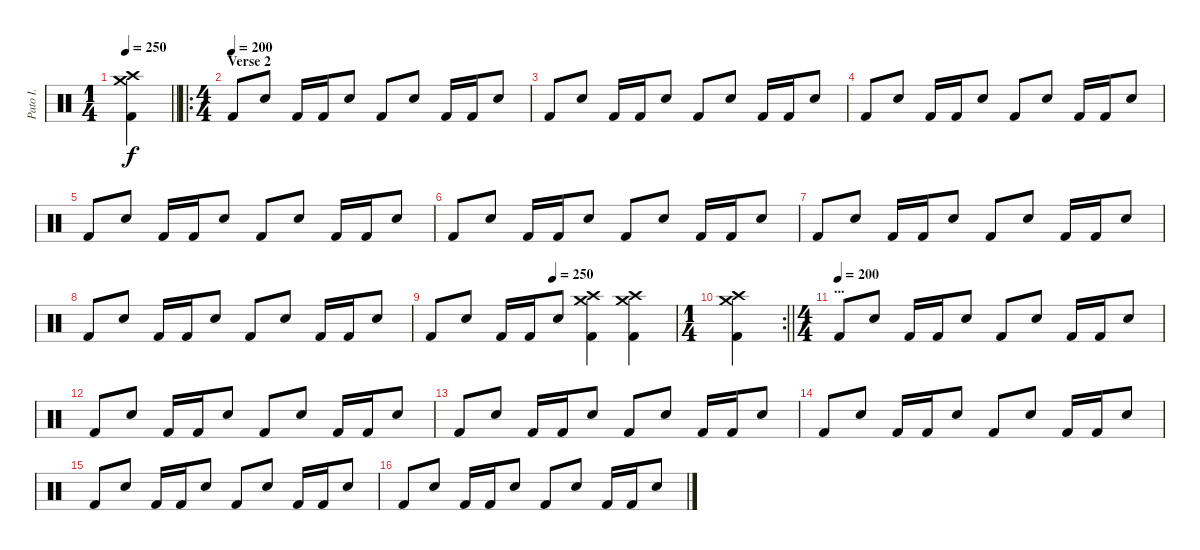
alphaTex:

\track ("Pato I." "Pato I.") {instrument percussion}
\staff {score}
\articulation defaults
\ts (1 4)
\tempo 250
\clef neutral
\barLineRight lightlight
\ks c
("Crash high (hit)" "Crash medium (hit)" "Kick (hit) 2").4{dy f} |
\ro
\ts (4 4)
\section ("" "Verse 2")
\tempo (200)
"Kick (hit) 2".8 "Snare (hit) 2".8 "Kick (hit) 2".16 "Kick (hit) 2".16 "Snare (hit) 2".8 "Kick (hit) 2".8 "Snare (hit) 2".8 "Kick (hit) 2".16 "Kick (hit) 2".16 "Snare (hit) 2".8 |
"Kick (hit) 2".8 "Snare (hit) 2".8 "Kick (hit) 2".16 "Kick (hit) 2".16 "Snare (hit) 2".8 "Kick (hit) 2".8 "Snare (hit) 2".8 "Kick (hit) 2".16 "Kick (hit) 2".16 "Snare (hit) 2".8 |
"Kick (hit) 2".8 "Snare (hit) 2".8 "Kick (hit) 2".16 "Kick (hit) 2".16 "Snare (hit) 2".8 "Kick (hit) 2".8 "Snare (hit) 2".8 "Kick (hit) 2".16 "Kick (hit) 2".16 "Snare (hit) 2".8 |
"Kick (hit) 2".8 "Snare (hit) 2".8 "Kick (hit) 2".16 "Kick (hit) 2".16 "Snare (hit) 2".8 "Kick (hit) 2".8 "Snare (hit) 2".8 "Kick (hit) 2".16 "Kick (hit) 2".16 "Snare (hit) 2".8 |
"Kick (hit) 2".8 "Snare (hit) 2".8 "Kick (hit) 2".16 "Kick (hit) 2".16 "Snare (hit) 2".8 "Kick (hit) 2".8 "Snare (hit) 2".8 "Kick (hit) 2".16 "Kick (hit) 2".16 "Snare (hit) 2".8 |
"Kick (hit) 2".8 "Snare (hit) 2".8 "Kick (hit) 2".16 "Kick (hit) 2".16 "Snare (hit) 2".8 "Kick (hit) 2".8 "Snare (hit) 2".8 "Kick (hit) 2".16 "Kick (hit) 2".16 "Snare (hit) 2".8 |
"Kick (hit) 2".8 "Snare (hit) 2".8 "Kick (hit) 2".16 "Kick (hit) 2".16 "Snare (hit) 2".8 "Kick (hit) 2".8 "Snare (hit) 2".8 "Kick (hit) 2".16 "Kick (hit) 2".16 "Snare (hit) 2".8 |
\tempo (250 0.5)
"Kick (hit) 2".8 "Snare (hit) 2".8 "Kick (hit) 2".16 "Kick (hit) 2".16 "Snare (hit) 2".8 ("Crash high (hit)" "Crash medium (hit)" "Kick (hit) 2").4 ("Crash high (hit)" "Crash medium (hit)" "Kick (hit) 2").4 |
\rc 2
\ts (1 4)
\barLineRight lightlight
("Crash high (hit)" "Crash medium (hit)" "Kick (hit) 2").4 |
\ts (4 4)
\section ("" "...")
\tempo (200)
"Kick (hit) 2".8 "Snare (hit) 2".8 "Kick (hit) 2".16 "Kick (hit) 2".16 "Snare (hit) 2".8 "Kick (hit) 2".8 "Snare (hit) 2".8 "Kick (hit) 2".16 "Kick (hit) 2".16 "Snare (hit) 2".8 |
"Kick (hit) 2".8 "Snare (hit) 2".8 "Kick (hit) 2".16 "Kick (hit) 2".16 "Snare (hit) 2".8 "Kick (hit) 2".8 "Snare (hit) 2".8 "Kick (hit) 2".16 "Kick (hit) 2".16 "Snare (hit) 2".8 |
"Kick (hit) 2".8 "Snare (hit) 2".8 "Kick (hit) 2".16 "Kick (hit) 2".16 "Snare (hit) 2".8 "Kick (hit) 2".8 "Snare (hit) 2".8 "Kick (hit) 2".16 "Kick (hit) 2".16 "Snare (hit) 2".8 |
"Kick (hit) 2".8 "Snare (hit) 2".8 "Kick (hit) 2".16 "Kick (hit) 2".16 "Snare (hit) 2".8 "Kick (hit) 2".8 "Snare (hit) 2".8 "Kick (hit) 2".16 "Kick (hit) 2".16 "Snare (hit) 2".8 |
"Kick (hit) 2".8 "Snare (hit) 2".8 "Kick (hit) 2".16 "Kick (hit) 2".16 "Snare (hit) 2".8 "Kick (hit) 2".8 "Snare (hit) 2".8 "Kick (hit) 2".16 "Kick (hit) 2".16 "Snare (hit) 2".8 |
"Kick (hit) 2".8 "Snare (hit) 2".8 "Kick (hit) 2".16 "Kick (hit) 2".16 "Snare (hit) 2".8 "Kick (hit) 2".8 "Snare (hit) 2".8 "Kick (hit) 2".16 "Kick (hit) 2".16 "Snare (hit) 2".8
